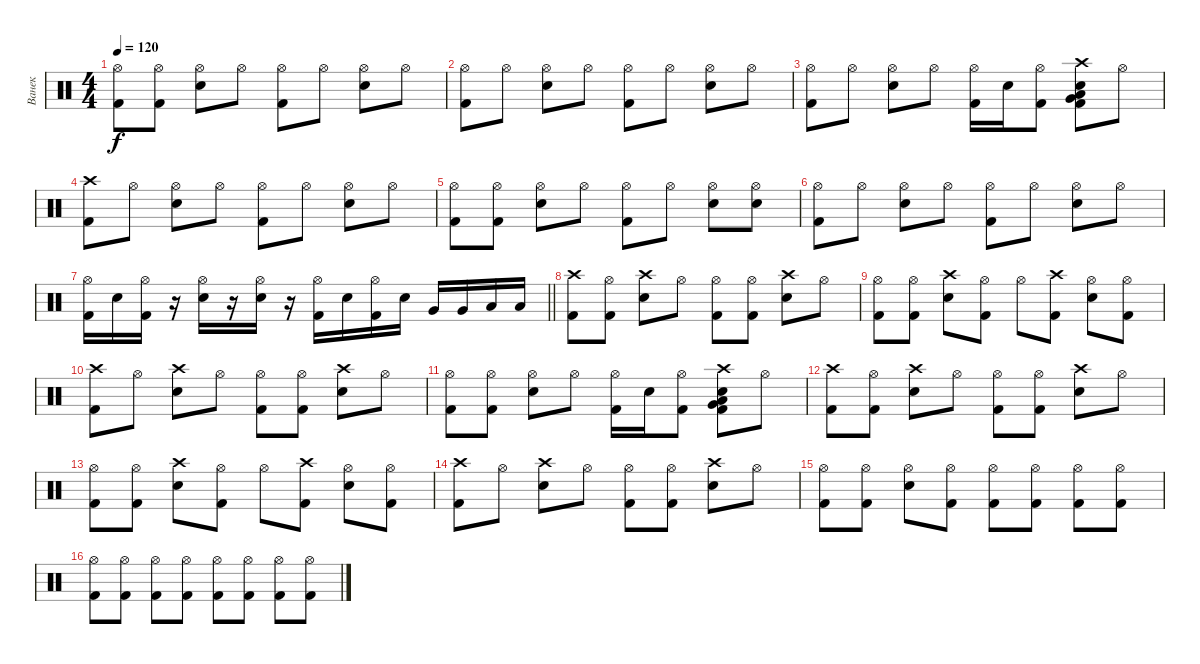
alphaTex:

\track ("Ванек" "Ванек") {instrument percussion}
\staff {score}
\articulation defaults
\ts (4 4)
\tempo 120
\clef neutral
\ks c
("Hi-Hat (open)" "Kick (hit) 2").8{dy f} ("Hi-Hat (open)" "Kick (hit) 2").8 ("Hi-Hat (open)" "Electric Snare (hit)").8 "Hi-Hat (open)".8 ("Hi-Hat (open)" "Kick (hit) 2").8 "Hi-Hat (open)".8 ("Hi-Hat (open)" "Electric Snare (hit)").8 "Hi-Hat (open)".8 |
("Hi-Hat (open)" "Kick (hit) 2").8 "Hi-Hat (open)".8 ("Hi-Hat (open)" "Electric Snare (hit)").8 "Hi-Hat (open)".8 ("Hi-Hat (open)" "Kick (hit) 2").8 "Hi-Hat (open)".8 ("Hi-Hat (open)" "Electric Snare (hit)").8 "Hi-Hat (open)".8 |
("Hi-Hat (open)" "Kick (hit) 2").8 "Hi-Hat (open)".8 ("Hi-Hat (open)" "Electric Snare (hit)").8 "Hi-Hat (open)".8 ("Hi-Hat (open)" "Kick (hit) 2").16 "Electric Snare (hit)".16 ("Hi-Hat (open)" "Kick (hit) 2").8 ("Crash high (hit)" "Low Tom (hit)" "Very Low Tom (hit)" "Electric Snare (hit)" "Kick (hit) 2").8 "Hi-Hat (open)".8 |
("Crash high (hit)" "Kick (hit) 2").8 "Hi-Hat (open)".8 ("Hi-Hat (open)" "Electric Snare (hit)").8 "Hi-Hat (open)".8 ("Hi-Hat (open)" "Kick (hit) 2").8 "Hi-Hat (open)".8 ("Hi-Hat (open)" "Electric Snare (hit)").8 "Hi-Hat (open)".8 |
("Hi-Hat (open)" "Kick (hit) 2").8 ("Hi-Hat (open)" "Kick (hit) 2").8 ("Hi-Hat (open)" "Electric Snare (hit)").8 "Hi-Hat (open)".8 ("Hi-Hat (open)" "Kick (hit) 2").8 "Hi-Hat (open)".8 ("Hi-Hat (open)" "Electric Snare (hit)").8 ("Hi-Hat (open)" "Electric Snare (hit)").8 |
("Hi-Hat (open)" "Kick (hit) 2").8 "Hi-Hat (open)".8 ("Hi-Hat (open)" "Electric Snare (hit)").8 "Hi-Hat (open)".8 ("Hi-Hat (open)" "Kick (hit) 2").8 "Hi-Hat (open)".8 ("Hi-Hat (open)" "Electric Snare (hit)").8 "Hi-Hat (open)".8 |
\barLineRight lightlight
("Hi-Hat (open)" "Kick (hit) 2").16 "Electric Snare (hit)".16 ("Hi-Hat (open)" "Kick (hit) 2").16 r.16 ("Hi-Hat (open)" "Electric Snare (hit)").16 r.16 ("Hi-Hat (open)" "Electric Snare (hit)").16 r.16 ("Hi-Hat (open)" "Kick (hit) 2").16 "Electric Snare (hit)".16 ("Hi-Hat (open)" "Kick (hit) 2").16 "Electric Snare (hit)".16 "Very Low Tom (hit)".16 "Very Low Tom (hit)".16 "Low Tom (hit)".16 "Low Tom (hit)".16 |
("Crash high (hit)" "Kick (hit) 2").8 ("Hi-Hat (open)" "Kick (hit) 2").8 ("Crash high (hit)" "Electric Snare (hit)").8 "Hi-Hat (open)".8 ("Hi-Hat (open)" "Kick (hit) 2").8 ("Hi-Hat (open)" "Kick (hit) 2").8 ("Crash high (hit)" "Electric Snare (hit)").8 "Hi-Hat (open)".8 |
("Hi-Hat (open)" "Kick (hit) 2").8 ("Hi-Hat (open)" "Kick (hit) 2").8 ("Crash high (hit)" "Electric Snare (hit)").8 ("Hi-Hat (open)" "Kick (hit) 2").8 "Hi-Hat (open)".8 ("Crash high (hit)" "Kick (hit) 2").8 ("Hi-Hat (open)" "Electric Snare (hit)").8 ("Hi-Hat (open)" "Kick (hit) 2").8 |
("Crash high (hit)" "Kick (hit) 2").8 "Hi-Hat (open)".8 ("Crash high (hit)" "Electric Snare (hit)").8 "Hi-Hat (open)".8 ("Hi-Hat (open)" "Kick (hit) 2").8 ("Hi-Hat (open)" "Kick (hit) 2").8 ("Crash high (hit)" "Electric Snare (hit)").8 "Hi-Hat (open)".8 |
("Hi-Hat (open)" "Kick (hit) 2").8 ("Hi-Hat (open)" "Kick (hit) 2").8 ("Hi-Hat (open)" "Electric Snare (hit)").8 "Hi-Hat (open)".8 ("Hi-Hat (open)" "Kick (hit) 2").16 "Electric Snare (hit)".16 ("Hi-Hat (open)" "Kick (hit) 2").8 ("Crash high (hit)" "Low Tom (hit)" "Very Low Tom (hit)" "Electric Snare (hit)" "Kick (hit) 2").8 "Hi-Hat (open)".8 |
("Crash high (hit)" "Kick (hit) 2").8 ("Hi-Hat (open)" "Kick (hit) 2").8 ("Crash high (hit)" "Electric Snare (hit)").8 "Hi-Hat (open)".8 ("Hi-Hat (open)" "Kick (hit) 2").8 ("Hi-Hat (open)" "Kick (hit) 2").8 ("Crash high (hit)" "Electric Snare (hit)").8 "Hi-Hat (open)".8 |
("Hi-Hat (open)" "Kick (hit) 2").8 ("Hi-Hat (open)" "Kick (hit) 2").8 ("Crash high (hit)" "Electric Snare (hit)").8 ("Hi-Hat (open)" "Kick (hit) 2").8 "Hi-Hat (open)".8 ("Crash high (hit)" "Kick (hit) 2").8 ("Hi-Hat (open)" "Electric Snare (hit)").8 ("Hi-Hat (open)" "Kick (hit) 2").8 |
("Crash high (hit)" "Kick (hit) 2").8 "Hi-Hat (open)".8 ("Crash high (hit)" "Electric Snare (hit)").8 "Hi-Hat (open)".8 ("Hi-Hat (open)" "Kick (hit) 2").8 ("Hi-Hat (open)" "Kick (hit) 2").8 ("Crash high (hit)" "Electric Snare (hit)").8 "Hi-Hat (open)".8 |
("Hi-Hat (open)" "Kick (hit) 2").8 ("Hi-Hat (open)" "Kick (hit) 2").8 ("Hi-Hat (open)" "Electric Snare (hit)").8 ("Hi-Hat (open)" "Kick (hit) 2").8 ("Hi-Hat (open)" "Kick (hit) 2").8 ("Hi-Hat (open)" "Kick (hit) 2").8 ("Hi-Hat (open)" "Kick (hit) 2").8 ("Hi-Hat (open)" "Kick (hit) 2").8 |
("Hi-Hat (open)" "Kick (hit) 2").8 ("Hi-Hat (open)" "Kick (hit) 2").8 ("Hi-Hat (open)" "Kick (hit) 2").8 ("Hi-Hat (open)" "Kick (hit) 2").8 ("Hi-Hat (open)" "Kick (hit) 2").8 ("Hi-Hat (open)" "Kick (hit) 2").8 ("Hi-Hat (open)" "Kick (hit) 2").8 ("Hi-Hat (open)" "Kick (hit) 2").8
